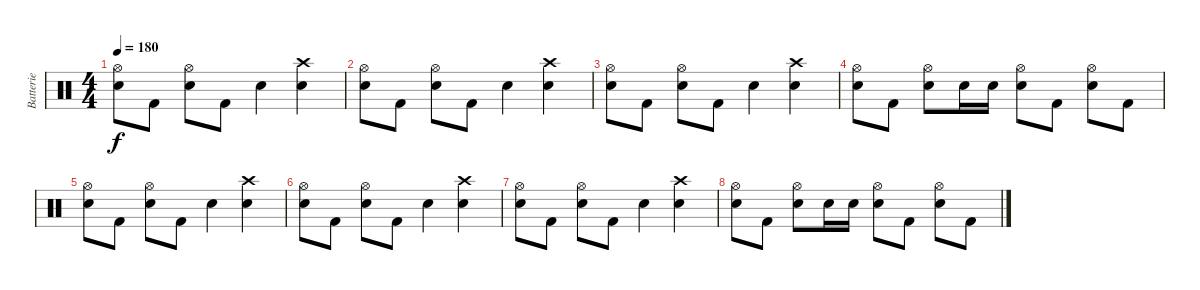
\track ("Batterie" "Batterie") {instrument percussion}
\staff {score}
\articulation defaults
\ts (4 4)
\tempo 180
\clef neutral
\ks c
("Hi-Hat (open)" "Electric Snare (hit)").8{dy f} "Kick (hit) 2".8 ("Hi-Hat (open)" "Electric Snare (hit)").8 "Kick (hit) 2".8 "Electric Snare (hit)".4 ("Crash high (hit)" "Electric Snare (hit)").4 |
("Hi-Hat (open)" "Electric Snare (hit)").8 "Kick (hit) 2".8 ("Hi-Hat (open)" "Electric Snare (hit)").8 "Kick (hit) 2".8 "Electric Snare (hit)".4 ("Crash high (hit)" "Electric Snare (hit)").4 |
("Hi-Hat (open)" "Electric Snare (hit)").8 "Kick (hit) 2".8 ("Hi-Hat (open)" "Electric Snare (hit)").8 "Kick (hit) 2".8 "Electric Snare (hit)".4 ("Crash high (hit)" "Electric Snare (hit)").4 |
("Hi-Hat (open)" "Electric Snare (hit)").8 "Kick (hit) 2".8 ("Hi-Hat (open)" "Electric Snare (hit)").8 "Electric Snare (hit)".16 "Electric Snare (hit)".16 ("Hi-Hat (open)" "Electric Snare (hit)").8 "Kick (hit) 2".8 ("Hi-Hat (open)" "Electric Snare (hit)").8 "Kick (hit) 2".8 |
("Hi-Hat (open)" "Electric Snare (hit)").8 "Kick (hit) 2".8 ("Hi-Hat (open)" "Electric Snare (hit)").8 "Kick (hit) 2".8 "Electric Snare (hit)".4 ("Crash high (hit)" "Electric Snare (hit)").4 |
("Hi-Hat (open)" "Electric Snare (hit)").8 "Kick (hit) 2".8 ("Hi-Hat (open)" "Electric Snare (hit)").8 "Kick (hit) 2".8 "Electric Snare (hit)".4 ("Crash high (hit)" "Electric Snare (hit)").4 |
("Hi-Hat (open)" "Electric Snare (hit)").8 "Kick (hit) 2".8 ("Hi-Hat (open)" "Electric Snare (hit)").8 "Kick (hit) 2".8 "Electric Snare (hit)".4 ("Crash high (hit)" "Electric Snare (hit)").4 |
("Hi-Hat (open)" "Electric Snare (hit)").8 "Kick (hit) 2".8 ("Hi-Hat (open)" "Electric Snare (hit)").8 "Electric Snare (hit)".16 "Electric Snare (hit)".16 ("Hi-Hat (open)" "Electric Snare (hit)").8 "Kick (hit) 2".8 ("Hi-Hat (open)" "Electric Snare (hit)").8 "Kick (hit) 2".8
